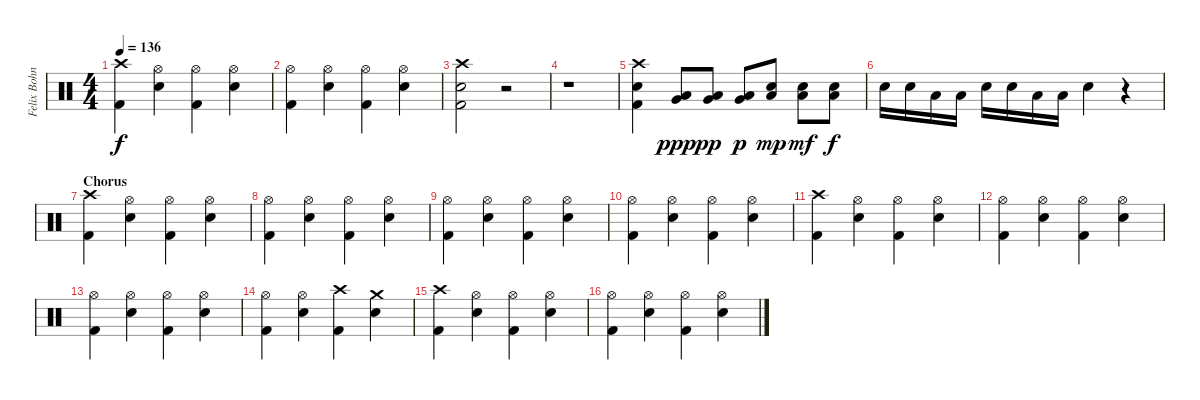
\track ("Felix Bohnke" "Felix Bohn") {instrument percussion}
\staff {score}
\articulation defaults
\ts (4 4)
\tempo 136
\clef neutral
\ks c
("Crash high (hit)" "Kick (hit) 2").4{dy f} ("Hi-Hat (open)" "Snare (hit) 2").4 ("Hi-Hat (open)" "Kick (hit) 2").4 ("Hi-Hat (open)" "Snare (hit) 2").4 |
("Hi-Hat (open)" "Kick (hit) 2").4 ("Hi-Hat (open)" "Snare (hit) 2").4 ("Hi-Hat (open)" "Kick (hit) 2").4 ("Hi-Hat (open)" "Snare (hit) 2").4 |
("Crash high (hit)" "Snare (hit) 2" "Kick (hit) 2").2 r.2 |
r.1 |
("Crash high (hit)" "Snare (hit) 2" "Kick (hit) 2").4 ("Very Low Tom (hit)" "Low Tom (hit)").8{dy ppp} ("Very Low Tom (hit)" "Low Tom (hit)").8{dy pp} ("Very Low Tom (hit)" "Low Tom (hit)").8{dy p} ("Snare (hit) 2" "Low Tom (hit)").8{dy mp} ("Snare (hit) 2" "Low Tom (hit)").8{dy mf} ("Snare (hit) 2" "Low Tom (hit)").8{dy f} |
"Snare (hit) 2".16 "Snare (hit) 2".16 "Low Tom (hit)".16 "Low Tom (hit)".16 "Snare (hit) 2".16 "Snare (hit) 2".16 "Low Tom (hit)".16 "Low Tom (hit)".16 "Snare (hit) 2".4 r.4 |
\section ("" "Chorus")
("Crash high (hit)" "Kick (hit) 2").4 ("Hi-Hat (open)" "Snare (hit) 2").4 ("Hi-Hat (open)" "Kick (hit) 2").4 ("Hi-Hat (open)" "Snare (hit) 2").4 |
("Hi-Hat (open)" "Kick (hit) 2").4 ("Hi-Hat (open)" "Snare (hit) 2").4 ("Hi-Hat (open)" "Kick (hit) 2").4 ("Hi-Hat (open)" "Snare (hit) 2").4 |
("Hi-Hat (open)" "Kick (hit) 2").4 ("Hi-Hat (open)" "Snare (hit) 2").4 ("Hi-Hat (open)" "Kick (hit) 2").4 ("Hi-Hat (open)" "Snare (hit) 2").4 |
("Hi-Hat (open)" "Kick (hit) 2").4 ("Hi-Hat (open)" "Snare (hit) 2").4 ("Hi-Hat (open)" "Kick (hit) 2").4 ("Hi-Hat (open)" "Snare (hit) 2").4 |
("Crash high (hit)" "Kick (hit) 2").4 ("Hi-Hat (open)" "Snare (hit) 2").4 ("Hi-Hat (open)" "Kick (hit) 2").4 ("Hi-Hat (open)" "Snare (hit) 2").4 |
("Hi-Hat (open)" "Kick (hit) 2").4 ("Hi-Hat (open)" "Snare (hit) 2").4 ("Hi-Hat (open)" "Kick (hit) 2").4 ("Hi-Hat (open)" "Snare (hit) 2").4 |
("Hi-Hat (open)" "Kick (hit) 2").4 ("Hi-Hat (open)" "Snare (hit) 2").4 ("Hi-Hat (open)" "Kick (hit) 2").4 ("Hi-Hat (open)" "Snare (hit) 2").4 |
("Hi-Hat (open)" "Kick (hit) 2").4 ("Hi-Hat (open)" "Snare (hit) 2").4 ("Crash high (hit)" "Kick (hit) 2").4 ("Crash medium (hit)" "Snare (hit) 2").4 |
("Crash high (hit)" "Kick (hit) 2").4 ("Hi-Hat (open)" "Snare (hit) 2").4 ("Hi-Hat (open)" "Kick (hit) 2").4 ("Hi-Hat (open)" "Snare (hit) 2").4 |
("Hi-Hat (open)" "Kick (hit) 2").4 ("Hi-Hat (open)" "Snare (hit) 2").4 ("Hi-Hat (open)" "Kick (hit) 2").4 ("Hi-Hat (open)" "Snare (hit) 2").4
